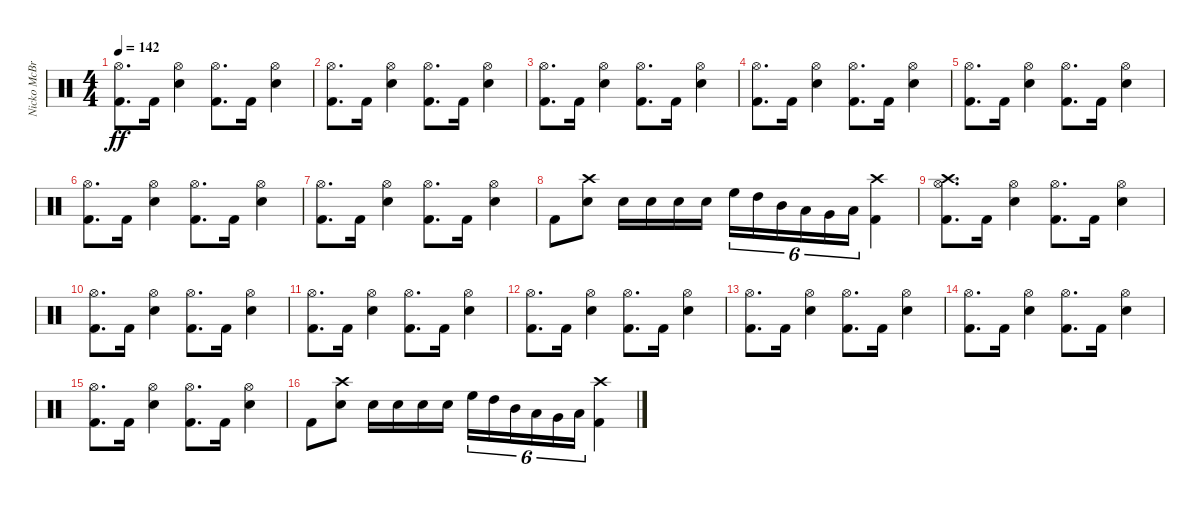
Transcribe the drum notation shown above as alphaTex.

\track ("Nicko McBrain" "Nicko McBr") {instrument percussion}
\staff {score}
\articulation defaults
\ts (4 4)
\tempo 142
\clef neutral
\ks c
("Kick (hit) 2" "Hi-Hat (open)").8{d dy ff} "Kick (hit) 2".16 ("Snare (hit) 2" "Hi-Hat (open)").4 ("Kick (hit) 2" "Hi-Hat (open)").8{d} "Kick (hit) 2".16 ("Snare (hit) 2" "Hi-Hat (open)").4 |
("Kick (hit) 2" "Hi-Hat (open)").8{d} "Kick (hit) 2".16 ("Snare (hit) 2" "Hi-Hat (open)").4 ("Kick (hit) 2" "Hi-Hat (open)").8{d} "Kick (hit) 2".16 ("Snare (hit) 2" "Hi-Hat (open)").4 |
("Kick (hit) 2" "Hi-Hat (open)").8{d} "Kick (hit) 2".16 ("Snare (hit) 2" "Hi-Hat (open)").4 ("Kick (hit) 2" "Hi-Hat (open)").8{d} "Kick (hit) 2".16 ("Snare (hit) 2" "Hi-Hat (open)").4 |
("Kick (hit) 2" "Hi-Hat (open)").8{d} "Kick (hit) 2".16 ("Snare (hit) 2" "Hi-Hat (open)").4 ("Kick (hit) 2" "Hi-Hat (open)").8{d} "Kick (hit) 2".16 ("Snare (hit) 2" "Hi-Hat (open)").4 |
("Kick (hit) 2" "Hi-Hat (open)").8{d} "Kick (hit) 2".16 ("Snare (hit) 2" "Hi-Hat (open)").4 ("Kick (hit) 2" "Hi-Hat (open)").8{d} "Kick (hit) 2".16 ("Snare (hit) 2" "Hi-Hat (open)").4 |
("Kick (hit) 2" "Hi-Hat (open)").8{d} "Kick (hit) 2".16 ("Snare (hit) 2" "Hi-Hat (open)").4 ("Kick (hit) 2" "Hi-Hat (open)").8{d} "Kick (hit) 2".16 ("Snare (hit) 2" "Hi-Hat (open)").4 |
("Kick (hit) 2" "Hi-Hat (open)").8{d} "Kick (hit) 2".16 ("Snare (hit) 2" "Hi-Hat (open)").4 ("Kick (hit) 2" "Hi-Hat (open)").8{d} "Kick (hit) 2".16 ("Snare (hit) 2" "Hi-Hat (open)").4 |
"Kick (hit) 2".8 ("Snare (hit) 2" "Crash high (hit)").8 "Snare (hit) 2".16 "Snare (hit) 2".16 "Snare (hit) 2".16 "Snare (hit) 2".16 "High Floor Tom (hit)".16{tu (6 4)} "High Tom (hit)".16{tu (6 4)} "Mid Tom (hit)".16{tu (6 4)} "Low Tom (hit)".16{tu (6 4)} "Very Low Tom (hit)".16{tu (6 4)} "Low Floor Tom (hit)".16{tu (6 4)} ("Kick (hit) 2" "Crash high (hit)").4 |
("Kick (hit) 2" "Hi-Hat (open)" "Crash high (hit)").8{d} "Kick (hit) 2".16 ("Snare (hit) 2" "Hi-Hat (open)").4 ("Kick (hit) 2" "Hi-Hat (open)").8{d} "Kick (hit) 2".16 ("Snare (hit) 2" "Hi-Hat (open)").4 |
("Kick (hit) 2" "Hi-Hat (open)").8{d} "Kick (hit) 2".16 ("Snare (hit) 2" "Hi-Hat (open)").4 ("Kick (hit) 2" "Hi-Hat (open)").8{d} "Kick (hit) 2".16 ("Snare (hit) 2" "Hi-Hat (open)").4 |
("Kick (hit) 2" "Hi-Hat (open)").8{d} "Kick (hit) 2".16 ("Snare (hit) 2" "Hi-Hat (open)").4 ("Kick (hit) 2" "Hi-Hat (open)").8{d} "Kick (hit) 2".16 ("Snare (hit) 2" "Hi-Hat (open)").4 |
("Kick (hit) 2" "Hi-Hat (open)").8{d} "Kick (hit) 2".16 ("Snare (hit) 2" "Hi-Hat (open)").4 ("Kick (hit) 2" "Hi-Hat (open)").8{d} "Kick (hit) 2".16 ("Snare (hit) 2" "Hi-Hat (open)").4 |
("Kick (hit) 2" "Hi-Hat (open)").8{d} "Kick (hit) 2".16 ("Snare (hit) 2" "Hi-Hat (open)").4 ("Kick (hit) 2" "Hi-Hat (open)").8{d} "Kick (hit) 2".16 ("Snare (hit) 2" "Hi-Hat (open)").4 |
("Kick (hit) 2" "Hi-Hat (open)").8{d} "Kick (hit) 2".16 ("Snare (hit) 2" "Hi-Hat (open)").4 ("Kick (hit) 2" "Hi-Hat (open)").8{d} "Kick (hit) 2".16 ("Snare (hit) 2" "Hi-Hat (open)").4 |
("Kick (hit) 2" "Hi-Hat (open)").8{d} "Kick (hit) 2".16 ("Snare (hit) 2" "Hi-Hat (open)").4 ("Kick (hit) 2" "Hi-Hat (open)").8{d} "Kick (hit) 2".16 ("Snare (hit) 2" "Hi-Hat (open)").4 |
"Kick (hit) 2".8 ("Snare (hit) 2" "Crash high (hit)").8 "Snare (hit) 2".16 "Snare (hit) 2".16 "Snare (hit) 2".16 "Snare (hit) 2".16 "High Floor Tom (hit)".16{tu (6 4)} "High Tom (hit)".16{tu (6 4)} "Mid Tom (hit)".16{tu (6 4)} "Low Tom (hit)".16{tu (6 4)} "Very Low Tom (hit)".16{tu (6 4)} "Low Floor Tom (hit)".16{tu (6 4)} ("Kick (hit) 2" "Crash high (hit)").4
